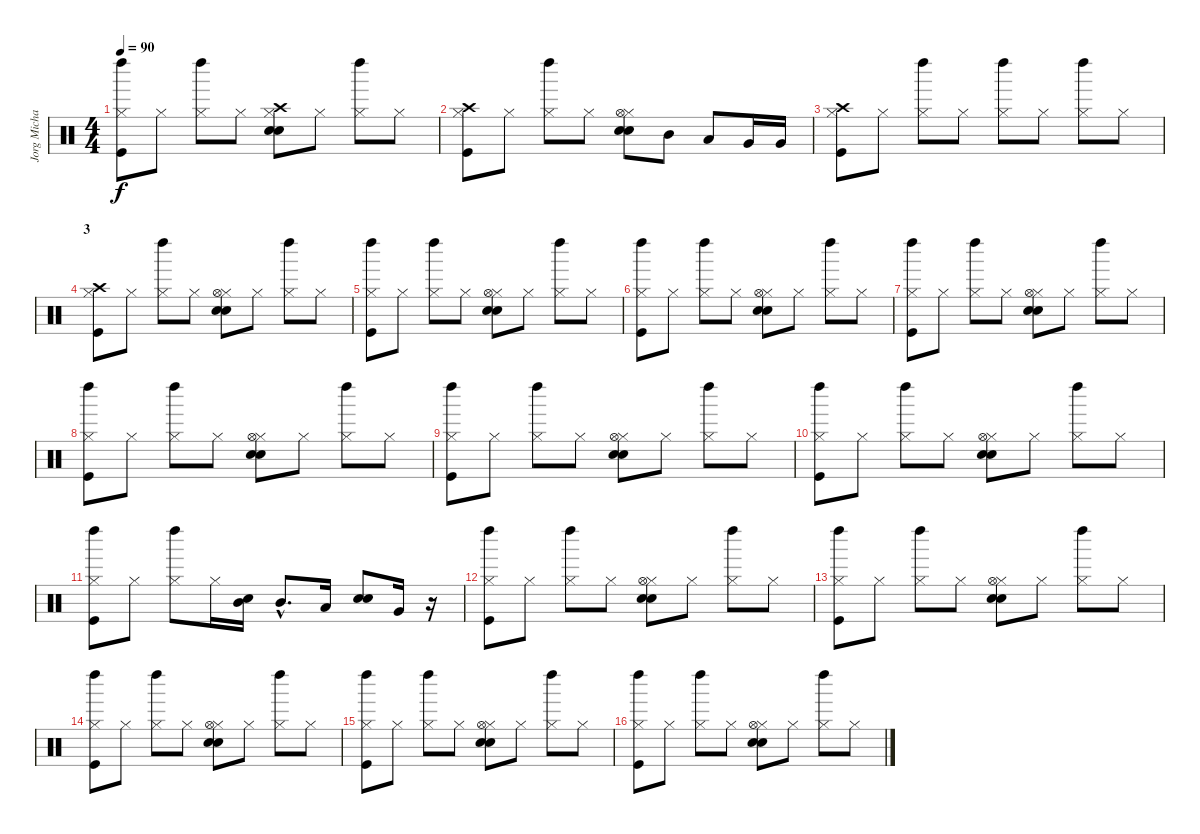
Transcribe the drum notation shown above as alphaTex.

\track ("Jorg Michael - Batteria" "Jorg Micha") {instrument percussion}
\staff {score}
\articulation defaults
\ts (4 4)
\tempo 90
\clef neutral
\ks c
("Kick (hit)" "Hi-Hat (closed)" "Left Maraca (hit)").8{dy f} "Hi-Hat (closed)".8 ("Hi-Hat (closed)" "Left Maraca (hit)").8 "Hi-Hat (closed)".8 ("Snare (hit) 2" "Hi-Hat (closed)" "Electric Snare (hit)" "Crash high (hit)").8 "Hi-Hat (closed)".8 ("Hi-Hat (closed)" "Left Maraca (hit)").8 "Hi-Hat (closed)".8 |
("Kick (hit)" "Hi-Hat (closed)" "Crash high (hit)").8 "Hi-Hat (closed)".8 ("Hi-Hat (closed)" "Left Maraca (hit)").8 "Hi-Hat (closed)".8 ("Snare (hit) 2" "Hi-Hat (closed)" "Electric Snare (hit)" "Hi-Hat (open)").8 "Mid Tom (hit)".8 "Low Tom (hit)".8 "Very Low Tom (hit)".16 "Very Low Tom (hit)".16 |
("Kick (hit)" "Hi-Hat (closed)" "Crash high (hit)").8 "Hi-Hat (closed)".8 ("Hi-Hat (closed)" "Left Maraca (hit)").8 "Hi-Hat (closed)".8 ("Hi-Hat (closed)" "Left Maraca (hit)").8 "Hi-Hat (closed)".8 ("Hi-Hat (closed)" "Left Maraca (hit)").8 "Hi-Hat (closed)".8 |
\section ("" "3")
("Kick (hit)" "Hi-Hat (closed)" "Crash high (hit)").8 "Hi-Hat (closed)".8 ("Hi-Hat (closed)" "Left Maraca (hit)").8 "Hi-Hat (closed)".8 ("Snare (hit) 2" "Hi-Hat (closed)" "Electric Snare (hit)" "Hi-Hat (open)").8 "Hi-Hat (closed)".8 ("Hi-Hat (closed)" "Left Maraca (hit)").8 "Hi-Hat (closed)".8 |
("Kick (hit)" "Hi-Hat (closed)" "Left Maraca (hit)").8 "Hi-Hat (closed)".8 ("Hi-Hat (closed)" "Left Maraca (hit)").8 "Hi-Hat (closed)".8 ("Snare (hit) 2" "Hi-Hat (closed)" "Electric Snare (hit)" "Hi-Hat (open)").8 "Hi-Hat (closed)".8 ("Hi-Hat (closed)" "Left Maraca (hit)").8 "Hi-Hat (closed)".8 |
("Kick (hit)" "Hi-Hat (closed)" "Left Maraca (hit)").8 "Hi-Hat (closed)".8 ("Hi-Hat (closed)" "Left Maraca (hit)").8 "Hi-Hat (closed)".8 ("Snare (hit) 2" "Hi-Hat (closed)" "Electric Snare (hit)" "Hi-Hat (open)").8 "Hi-Hat (closed)".8 ("Hi-Hat (closed)" "Left Maraca (hit)").8 "Hi-Hat (closed)".8 |
("Kick (hit)" "Hi-Hat (closed)" "Left Maraca (hit)").8 "Hi-Hat (closed)".8 ("Hi-Hat (closed)" "Left Maraca (hit)").8 "Hi-Hat (closed)".8 ("Snare (hit) 2" "Hi-Hat (closed)" "Electric Snare (hit)" "Hi-Hat (open)").8 "Hi-Hat (closed)".8 ("Hi-Hat (closed)" "Left Maraca (hit)").8 "Hi-Hat (closed)".8 |
("Kick (hit)" "Hi-Hat (closed)" "Left Maraca (hit)").8 "Hi-Hat (closed)".8 ("Hi-Hat (closed)" "Left Maraca (hit)").8 "Hi-Hat (closed)".8 ("Snare (hit) 2" "Hi-Hat (closed)" "Electric Snare (hit)" "Hi-Hat (open)").8 "Hi-Hat (closed)".8 ("Hi-Hat (closed)" "Left Maraca (hit)").8 "Hi-Hat (closed)".8 |
("Kick (hit)" "Hi-Hat (closed)" "Left Maraca (hit)").8 "Hi-Hat (closed)".8 ("Hi-Hat (closed)" "Left Maraca (hit)").8 "Hi-Hat (closed)".8 ("Snare (hit) 2" "Hi-Hat (closed)" "Electric Snare (hit)" "Hi-Hat (open)").8 "Hi-Hat (closed)".8 ("Hi-Hat (closed)" "Left Maraca (hit)").8 "Hi-Hat (closed)".8 |
("Kick (hit)" "Hi-Hat (closed)" "Left Maraca (hit)").8 "Hi-Hat (closed)".8 ("Hi-Hat (closed)" "Left Maraca (hit)").8 "Hi-Hat (closed)".8 ("Snare (hit) 2" "Hi-Hat (closed)" "Electric Snare (hit)" "Hi-Hat (open)").8 "Hi-Hat (closed)".8 ("Hi-Hat (closed)" "Left Maraca (hit)").8 "Hi-Hat (closed)".8 |
("Kick (hit)" "Hi-Hat (closed)" "Left Maraca (hit)").8 "Hi-Hat (closed)".8 ("Hi-Hat (closed)" "Left Maraca (hit)").8 "Hi-Hat (closed)".16 ("Mid Tom (hit)" "Electric Snare (hit)").16 "Mid Tom (hit)"{hac}.8{d} "Low Tom (hit)".16 ("Electric Snare (hit)" "Snare (hit) 2").8 "Very Low Tom (hit)".16 r.16 |
("Kick (hit)" "Hi-Hat (closed)" "Left Maraca (hit)").8 "Hi-Hat (closed)".8 ("Hi-Hat (closed)" "Left Maraca (hit)").8 "Hi-Hat (closed)".8 ("Snare (hit) 2" "Hi-Hat (closed)" "Electric Snare (hit)" "Hi-Hat (open)").8 "Hi-Hat (closed)".8 ("Hi-Hat (closed)" "Left Maraca (hit)").8 "Hi-Hat (closed)".8 |
("Kick (hit)" "Hi-Hat (closed)" "Left Maraca (hit)").8 "Hi-Hat (closed)".8 ("Hi-Hat (closed)" "Left Maraca (hit)").8 "Hi-Hat (closed)".8 ("Snare (hit) 2" "Hi-Hat (closed)" "Electric Snare (hit)" "Hi-Hat (open)").8 "Hi-Hat (closed)".8 ("Hi-Hat (closed)" "Left Maraca (hit)").8 "Hi-Hat (closed)".8 |
("Kick (hit)" "Hi-Hat (closed)" "Left Maraca (hit)").8 "Hi-Hat (closed)".8 ("Hi-Hat (closed)" "Left Maraca (hit)").8 "Hi-Hat (closed)".8 ("Snare (hit) 2" "Hi-Hat (closed)" "Electric Snare (hit)" "Hi-Hat (open)").8 "Hi-Hat (closed)".8 ("Hi-Hat (closed)" "Left Maraca (hit)").8 "Hi-Hat (closed)".8 |
("Kick (hit)" "Hi-Hat (closed)" "Left Maraca (hit)").8 "Hi-Hat (closed)".8 ("Hi-Hat (closed)" "Left Maraca (hit)").8 "Hi-Hat (closed)".8 ("Snare (hit) 2" "Hi-Hat (closed)" "Electric Snare (hit)" "Hi-Hat (open)").8 "Hi-Hat (closed)".8 ("Hi-Hat (closed)" "Left Maraca (hit)").8 "Hi-Hat (closed)".8 |
("Kick (hit)" "Hi-Hat (closed)" "Left Maraca (hit)").8 "Hi-Hat (closed)".8 ("Hi-Hat (closed)" "Left Maraca (hit)").8 "Hi-Hat (closed)".8 ("Snare (hit) 2" "Hi-Hat (closed)" "Electric Snare (hit)" "Hi-Hat (open)").8 "Hi-Hat (closed)".8 ("Hi-Hat (closed)" "Left Maraca (hit)").8 "Hi-Hat (closed)".8
